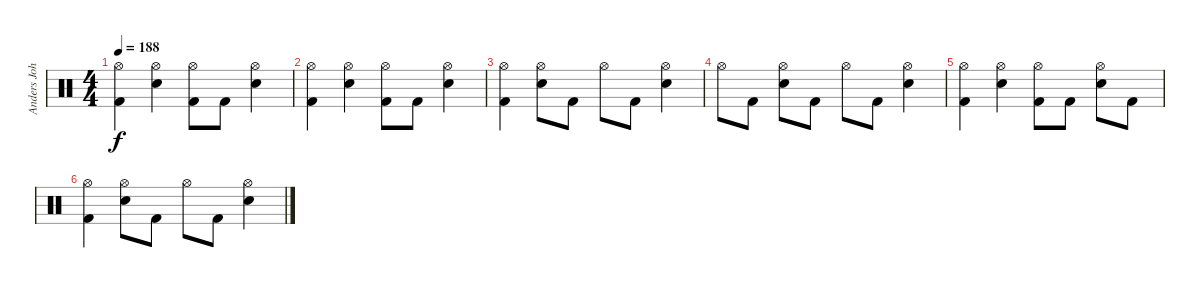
\track ("Anders Johansson" "Anders Joh") {instrument percussion}
\staff {score}
\articulation defaults
\ts (4 4)
\tempo 188
\clef neutral
\ks c
("Hi-Hat (open)" "Kick (hit) 2").4{dy f} ("Hi-Hat (open)" "Snare (hit) 2").4 ("Hi-Hat (open)" "Kick (hit) 2").8 "Kick (hit) 2".8 ("Hi-Hat (open)" "Snare (hit) 2").4 |
("Hi-Hat (open)" "Kick (hit) 2").4 ("Hi-Hat (open)" "Snare (hit) 2").4 ("Hi-Hat (open)" "Kick (hit) 2").8 "Kick (hit) 2".8 ("Hi-Hat (open)" "Snare (hit) 2").4 |
("Hi-Hat (open)" "Kick (hit) 2").4 ("Hi-Hat (open)" "Snare (hit) 2").8 "Kick (hit) 2".8 "Hi-Hat (open)".8 "Kick (hit) 2".8 ("Hi-Hat (open)" "Snare (hit) 2").4 |
"Hi-Hat (open)".8 "Kick (hit) 2".8 ("Hi-Hat (open)" "Snare (hit) 2").8 "Kick (hit) 2".8 "Hi-Hat (open)".8 "Kick (hit) 2".8 ("Hi-Hat (open)" "Snare (hit) 2").4 |
("Hi-Hat (open)" "Kick (hit) 2").4 ("Hi-Hat (open)" "Snare (hit) 2").4 ("Hi-Hat (open)" "Kick (hit) 2").8 "Kick (hit) 2".8 ("Hi-Hat (open)" "Snare (hit) 2").8 "Kick (hit) 2".8 |
("Hi-Hat (open)" "Kick (hit) 2").4 ("Hi-Hat (open)" "Snare (hit) 2").8 "Kick (hit) 2".8 "Hi-Hat (open)".8 "Kick (hit) 2".8 ("Hi-Hat (open)" "Snare (hit) 2").4
